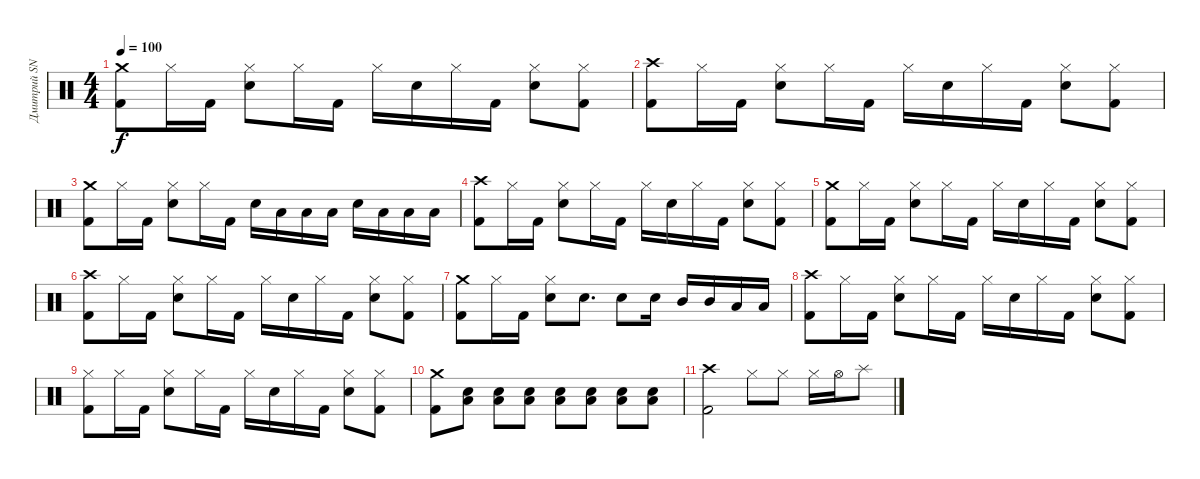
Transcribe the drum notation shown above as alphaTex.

\track ("Дмитрий SNAKE Хакимов" "Дмитрий SN") {instrument percussion}
\staff {score}
\articulation defaults
\ts (4 4)
\tempo 100
\clef neutral
\ks c
("Crash medium (hit)" "Kick (hit) 2").8{dy f} "Hi-Hat (closed)".16 "Kick (hit) 2".16 ("Hi-Hat (closed)" "Snare (hit) 2").8 "Hi-Hat (closed)".16 "Kick (hit) 2".16 "Hi-Hat (closed)".16 "Snare (hit) 2".16 "Hi-Hat (closed)".16 "Kick (hit) 2".16 ("Hi-Hat (closed)" "Snare (hit) 2").8 ("Hi-Hat (closed)" "Kick (hit) 2").8 |
("Crash high (hit)" "Kick (hit) 2").8 "Hi-Hat (closed)".16 "Kick (hit) 2".16 ("Hi-Hat (closed)" "Snare (hit) 2").8 "Hi-Hat (closed)".16 "Kick (hit) 2".16 "Hi-Hat (closed)".16 "Snare (hit) 2".16 "Hi-Hat (closed)".16 "Kick (hit) 2".16 ("Hi-Hat (closed)" "Snare (hit) 2").8 ("Hi-Hat (closed)" "Kick (hit) 2").8 |
("Crash medium (hit)" "Kick (hit) 2").8 "Hi-Hat (closed)".16 "Kick (hit) 2".16 ("Hi-Hat (closed)" "Snare (hit) 2").8 "Hi-Hat (closed)".16 "Kick (hit) 2".16 "Snare (hit) 2".16 "Low Tom (hit)".16 "Low Tom (hit)".16 "Low Tom (hit)".16 "Snare (hit) 2".16 "Low Tom (hit)".16 "Low Tom (hit)".16 "Low Tom (hit)".16 |
("Crash high (hit)" "Kick (hit) 2").8 "Hi-Hat (closed)".16 "Kick (hit) 2".16 ("Hi-Hat (closed)" "Snare (hit) 2").8 "Hi-Hat (closed)".16 "Kick (hit) 2".16 "Hi-Hat (closed)".16 "Snare (hit) 2".16 "Hi-Hat (closed)".16 "Kick (hit) 2".16 ("Hi-Hat (closed)" "Snare (hit) 2").8 ("Hi-Hat (closed)" "Kick (hit) 2").8 |
("Crash medium (hit)" "Kick (hit) 2").8 "Hi-Hat (closed)".16 "Kick (hit) 2".16 ("Hi-Hat (closed)" "Snare (hit) 2").8 "Hi-Hat (closed)".16 "Kick (hit) 2".16 "Hi-Hat (closed)".16 "Snare (hit) 2".16 "Hi-Hat (closed)".16 "Kick (hit) 2".16 ("Hi-Hat (closed)" "Snare (hit) 2").8 ("Hi-Hat (closed)" "Kick (hit) 2").8 |
("Crash high (hit)" "Kick (hit) 2").8 "Hi-Hat (closed)".16 "Kick (hit) 2".16 ("Hi-Hat (closed)" "Snare (hit) 2").8 "Hi-Hat (closed)".16 "Kick (hit) 2".16 "Hi-Hat (closed)".16 "Snare (hit) 2".16 "Hi-Hat (closed)".16 "Kick (hit) 2".16 ("Hi-Hat (closed)" "Snare (hit) 2").8 ("Hi-Hat (closed)" "Kick (hit) 2").8 |
("Crash medium (hit)" "Kick (hit) 2").8 "Hi-Hat (closed)".16 "Kick (hit) 2".16 ("Hi-Hat (closed)" "Snare (hit) 2").8 "Snare (hit) 2".8{d} "Snare (hit) 2".8 "Snare (hit) 2".16 "Mid Tom (hit)".16 "Mid Tom (hit)".16 "Low Tom (hit)".16 "Low Tom (hit)".16 |
("Crash high (hit)" "Kick (hit) 2").8 "Hi-Hat (closed)".16 "Kick (hit) 2".16 ("Hi-Hat (closed)" "Snare (hit) 2").8 "Hi-Hat (closed)".16 "Kick (hit) 2".16 "Hi-Hat (closed)".16 "Snare (hit) 2".16 "Hi-Hat (closed)".16 "Kick (hit) 2".16 ("Hi-Hat (closed)" "Snare (hit) 2").8 ("Hi-Hat (closed)" "Kick (hit) 2").8 |
("Hi-Hat (closed)" "Kick (hit) 2").8 "Hi-Hat (closed)".16 "Kick (hit) 2".16 ("Hi-Hat (closed)" "Snare (hit) 2").8 "Hi-Hat (closed)".16 "Kick (hit) 2".16 "Hi-Hat (closed)".16 "Snare (hit) 2".16 "Hi-Hat (closed)".16 "Kick (hit) 2".16 ("Hi-Hat (closed)" "Snare (hit) 2").8 ("Hi-Hat (closed)" "Kick (hit) 2").8 |
("Crash medium (hit)" "Kick (hit) 2").8 ("Snare (hit) 2" "Low Tom (hit)").8 ("Snare (hit) 2" "Low Tom (hit)").8 ("Snare (hit) 2" "Low Tom (hit)").8 ("Snare (hit) 2" "Low Tom (hit)").8 ("Snare (hit) 2" "Low Tom (hit)").8 ("Snare (hit) 2" "Low Tom (hit)").8 ("Snare (hit) 2" "Low Tom (hit)").8 |
("Crash high (hit)" "Kick (hit) 2").2 "Hi-Hat (closed)".8 "Hi-Hat (closed)".8 "Hi-Hat (closed)".16 "Hi-Hat (open)".16 "Splash (hit)".8
